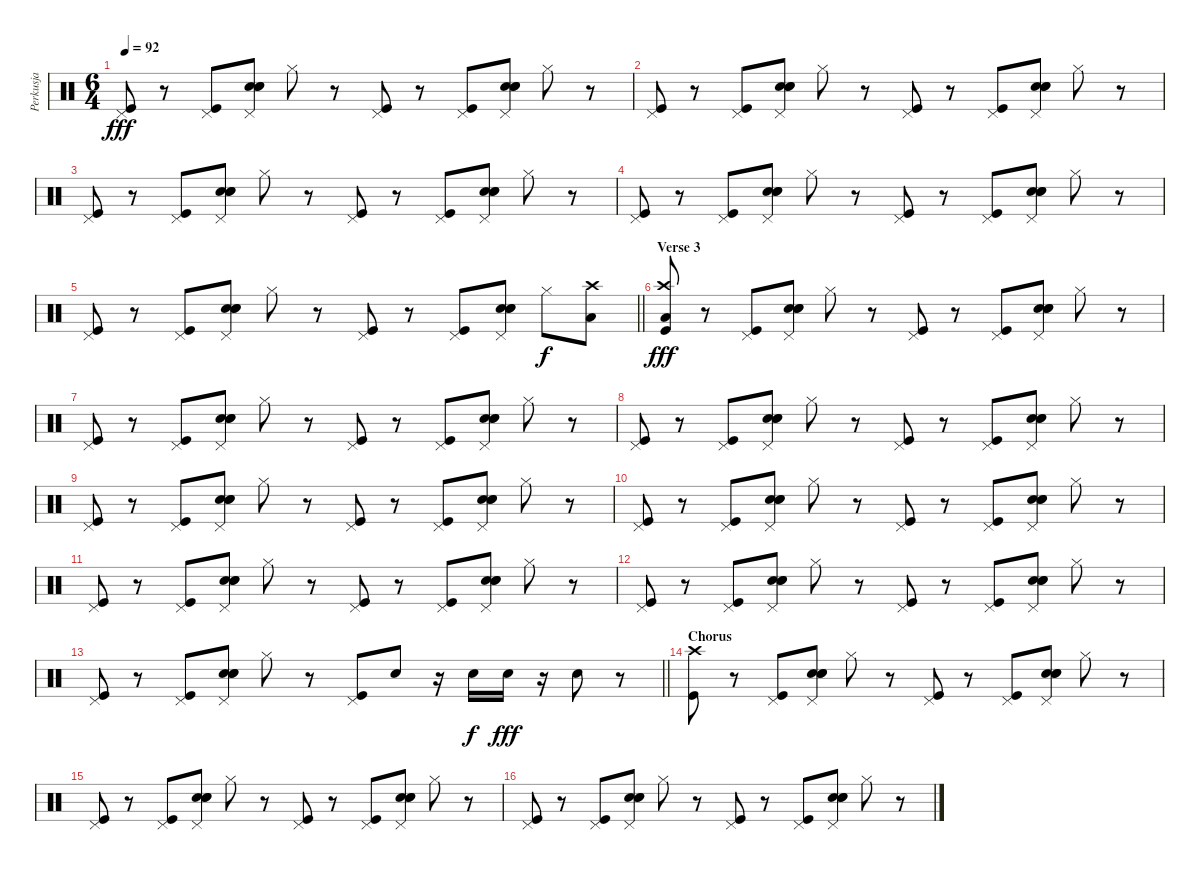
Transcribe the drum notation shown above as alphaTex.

\track ("Perkusja" "Perkusja") {instrument percussion}
\staff {score}
\articulation defaults
\ts (6 4)
\tempo 92
\clef neutral
\ks c
("Pedal Hi-Hat (hit)" "Kick (hit)").8{dy fff} r.8 ("Pedal Hi-Hat (hit)" "Kick (hit)").8 ("Pedal Hi-Hat (hit)" "Electric Snare (hit)" "Electric Snare (hit)" "Electric Snare (hit)").8 "Hi-Hat (closed)".8 r.8 ("Pedal Hi-Hat (hit)" "Kick (hit)").8 r.8 ("Pedal Hi-Hat (hit)" "Kick (hit)").8 ("Pedal Hi-Hat (hit)" "Electric Snare (hit)" "Electric Snare (hit)" "Electric Snare (hit)").8 "Hi-Hat (closed)".8 r.8 |
("Pedal Hi-Hat (hit)" "Kick (hit)").8 r.8 ("Pedal Hi-Hat (hit)" "Kick (hit)").8 ("Pedal Hi-Hat (hit)" "Electric Snare (hit)" "Electric Snare (hit)" "Electric Snare (hit)").8 "Hi-Hat (closed)".8 r.8 ("Pedal Hi-Hat (hit)" "Kick (hit)").8 r.8 ("Pedal Hi-Hat (hit)" "Kick (hit)").8 ("Pedal Hi-Hat (hit)" "Electric Snare (hit)" "Electric Snare (hit)" "Electric Snare (hit)").8 "Hi-Hat (closed)".8 r.8 |
("Pedal Hi-Hat (hit)" "Kick (hit)").8 r.8 ("Pedal Hi-Hat (hit)" "Kick (hit)").8 ("Pedal Hi-Hat (hit)" "Electric Snare (hit)" "Electric Snare (hit)" "Electric Snare (hit)").8 "Hi-Hat (closed)".8 r.8 ("Pedal Hi-Hat (hit)" "Kick (hit)").8 r.8 ("Pedal Hi-Hat (hit)" "Kick (hit)").8 ("Pedal Hi-Hat (hit)" "Electric Snare (hit)" "Electric Snare (hit)" "Electric Snare (hit)").8 "Hi-Hat (closed)".8 r.8 |
("Pedal Hi-Hat (hit)" "Kick (hit)").8 r.8 ("Pedal Hi-Hat (hit)" "Kick (hit)").8 ("Pedal Hi-Hat (hit)" "Electric Snare (hit)" "Electric Snare (hit)" "Electric Snare (hit)").8 "Hi-Hat (closed)".8 r.8 ("Pedal Hi-Hat (hit)" "Kick (hit)").8 r.8 ("Pedal Hi-Hat (hit)" "Kick (hit)").8 ("Pedal Hi-Hat (hit)" "Electric Snare (hit)" "Electric Snare (hit)" "Electric Snare (hit)").8 "Hi-Hat (closed)".8 r.8 |
\barLineRight lightlight
("Pedal Hi-Hat (hit)" "Kick (hit)").8 r.8 ("Pedal Hi-Hat (hit)" "Kick (hit)").8 ("Pedal Hi-Hat (hit)" "Electric Snare (hit)" "Electric Snare (hit)" "Electric Snare (hit)").8 "Hi-Hat (closed)".8 r.8 ("Pedal Hi-Hat (hit)" "Kick (hit)").8 r.8 ("Pedal Hi-Hat (hit)" "Kick (hit)").8 ("Pedal Hi-Hat (hit)" "Electric Snare (hit)" "Electric Snare (hit)" "Electric Snare (hit)").8 "Hi-Hat (closed)".8{dy f} ("Crash high (hit)" "Low Tom (hit)").8 |
\section ("" "Verse 3")
("Crash high (hit)" "Low Tom (hit)" "Kick (hit)").8{dy fff} r.8 ("Pedal Hi-Hat (hit)" "Kick (hit)").8 ("Pedal Hi-Hat (hit)" "Electric Snare (hit)" "Electric Snare (hit)" "Electric Snare (hit)").8 "Hi-Hat (closed)".8 r.8 ("Pedal Hi-Hat (hit)" "Kick (hit)").8 r.8 ("Pedal Hi-Hat (hit)" "Kick (hit)").8 ("Pedal Hi-Hat (hit)" "Electric Snare (hit)" "Electric Snare (hit)" "Electric Snare (hit)").8 "Hi-Hat (closed)".8 r.8 |
("Pedal Hi-Hat (hit)" "Kick (hit)").8 r.8 ("Pedal Hi-Hat (hit)" "Kick (hit)").8 ("Pedal Hi-Hat (hit)" "Electric Snare (hit)" "Electric Snare (hit)" "Electric Snare (hit)").8 "Hi-Hat (closed)".8 r.8 ("Pedal Hi-Hat (hit)" "Kick (hit)").8 r.8 ("Pedal Hi-Hat (hit)" "Kick (hit)").8 ("Pedal Hi-Hat (hit)" "Electric Snare (hit)" "Electric Snare (hit)" "Electric Snare (hit)").8 "Hi-Hat (closed)".8 r.8 |
("Pedal Hi-Hat (hit)" "Kick (hit)").8 r.8 ("Pedal Hi-Hat (hit)" "Kick (hit)").8 ("Pedal Hi-Hat (hit)" "Electric Snare (hit)" "Electric Snare (hit)" "Electric Snare (hit)").8 "Hi-Hat (closed)".8 r.8 ("Pedal Hi-Hat (hit)" "Kick (hit)").8 r.8 ("Pedal Hi-Hat (hit)" "Kick (hit)").8 ("Pedal Hi-Hat (hit)" "Electric Snare (hit)" "Electric Snare (hit)" "Electric Snare (hit)").8 "Hi-Hat (closed)".8 r.8 |
("Pedal Hi-Hat (hit)" "Kick (hit)").8 r.8 ("Pedal Hi-Hat (hit)" "Kick (hit)").8 ("Pedal Hi-Hat (hit)" "Electric Snare (hit)" "Electric Snare (hit)" "Electric Snare (hit)").8 "Hi-Hat (closed)".8 r.8 ("Pedal Hi-Hat (hit)" "Kick (hit)").8 r.8 ("Pedal Hi-Hat (hit)" "Kick (hit)").8 ("Pedal Hi-Hat (hit)" "Electric Snare (hit)" "Electric Snare (hit)" "Electric Snare (hit)").8 "Hi-Hat (closed)".8 r.8 |
("Pedal Hi-Hat (hit)" "Kick (hit)").8 r.8 ("Pedal Hi-Hat (hit)" "Kick (hit)").8 ("Pedal Hi-Hat (hit)" "Electric Snare (hit)" "Electric Snare (hit)" "Electric Snare (hit)").8 "Hi-Hat (closed)".8 r.8 ("Pedal Hi-Hat (hit)" "Kick (hit)").8 r.8 ("Pedal Hi-Hat (hit)" "Kick (hit)").8 ("Pedal Hi-Hat (hit)" "Electric Snare (hit)" "Electric Snare (hit)" "Electric Snare (hit)").8 "Hi-Hat (closed)".8 r.8 |
("Pedal Hi-Hat (hit)" "Kick (hit)").8 r.8 ("Pedal Hi-Hat (hit)" "Kick (hit)").8 ("Pedal Hi-Hat (hit)" "Electric Snare (hit)" "Electric Snare (hit)" "Electric Snare (hit)").8 "Hi-Hat (closed)".8 r.8 ("Pedal Hi-Hat (hit)" "Kick (hit)").8 r.8 ("Pedal Hi-Hat (hit)" "Kick (hit)").8 ("Pedal Hi-Hat (hit)" "Electric Snare (hit)" "Electric Snare (hit)" "Electric Snare (hit)").8 "Hi-Hat (closed)".8 r.8 |
("Pedal Hi-Hat (hit)" "Kick (hit)").8 r.8 ("Pedal Hi-Hat (hit)" "Kick (hit)").8 ("Pedal Hi-Hat (hit)" "Electric Snare (hit)" "Electric Snare (hit)" "Electric Snare (hit)").8 "Hi-Hat (closed)".8 r.8 ("Pedal Hi-Hat (hit)" "Kick (hit)").8 r.8 ("Pedal Hi-Hat (hit)" "Kick (hit)").8 ("Pedal Hi-Hat (hit)" "Electric Snare (hit)" "Electric Snare (hit)" "Electric Snare (hit)").8 "Hi-Hat (closed)".8 r.8 |
\barLineRight lightlight
("Pedal Hi-Hat (hit)" "Kick (hit)").8 r.8 ("Pedal Hi-Hat (hit)" "Kick (hit)").8 ("Pedal Hi-Hat (hit)" "Electric Snare (hit)" "Electric Snare (hit)" "Electric Snare (hit)").8 "Hi-Hat (closed)".8 r.8 ("Pedal Hi-Hat (hit)" "Kick (hit)").8 "Electric Snare (hit)".8 r.16 "Electric Snare (hit)".16{dy f} "Electric Snare (hit)".16{dy fff} r.16 "Electric Snare (hit)".8 r.8 |
\section ("" "Chorus")
("Crash high (hit)" "Kick (hit)").8 r.8 ("Pedal Hi-Hat (hit)" "Kick (hit)").8 ("Pedal Hi-Hat (hit)" "Electric Snare (hit)" "Electric Snare (hit)" "Electric Snare (hit)").8 "Hi-Hat (closed)".8 r.8 ("Pedal Hi-Hat (hit)" "Kick (hit)").8 r.8 ("Pedal Hi-Hat (hit)" "Kick (hit)").8 ("Pedal Hi-Hat (hit)" "Electric Snare (hit)" "Electric Snare (hit)" "Electric Snare (hit)").8 "Hi-Hat (closed)".8 r.8 |
("Pedal Hi-Hat (hit)" "Kick (hit)").8 r.8 ("Pedal Hi-Hat (hit)" "Kick (hit)").8 ("Pedal Hi-Hat (hit)" "Electric Snare (hit)" "Electric Snare (hit)" "Electric Snare (hit)").8 "Hi-Hat (closed)".8 r.8 ("Pedal Hi-Hat (hit)" "Kick (hit)").8 r.8 ("Pedal Hi-Hat (hit)" "Kick (hit)").8 ("Pedal Hi-Hat (hit)" "Electric Snare (hit)" "Electric Snare (hit)" "Electric Snare (hit)").8 "Hi-Hat (closed)".8 r.8 |
("Pedal Hi-Hat (hit)" "Kick (hit)").8 r.8 ("Pedal Hi-Hat (hit)" "Kick (hit)").8 ("Pedal Hi-Hat (hit)" "Electric Snare (hit)" "Electric Snare (hit)" "Electric Snare (hit)").8 "Hi-Hat (closed)".8 r.8 ("Pedal Hi-Hat (hit)" "Kick (hit)").8 r.8 ("Pedal Hi-Hat (hit)" "Kick (hit)").8 ("Pedal Hi-Hat (hit)" "Electric Snare (hit)" "Electric Snare (hit)" "Electric Snare (hit)").8 "Hi-Hat (closed)".8 r.8
